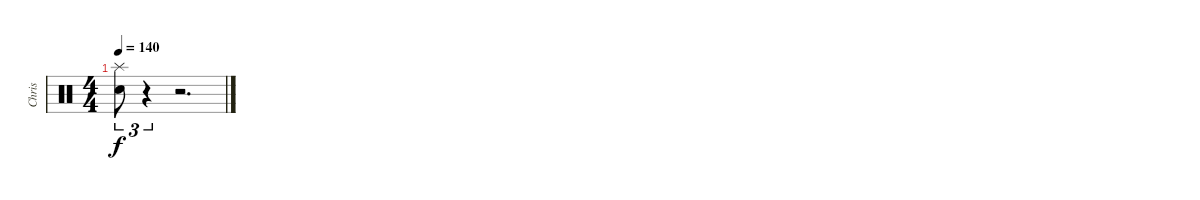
\track ("Chris" "Chris") {instrument percussion}
\staff {score}
\articulation defaults
\ts (4 4)
\tempo 140
\clef neutral
\ks c
("Splash (hit)" "Snare (hit) 2").8{tu (3 2) dy f} r.4{tu (3 2)} r.2{d}
